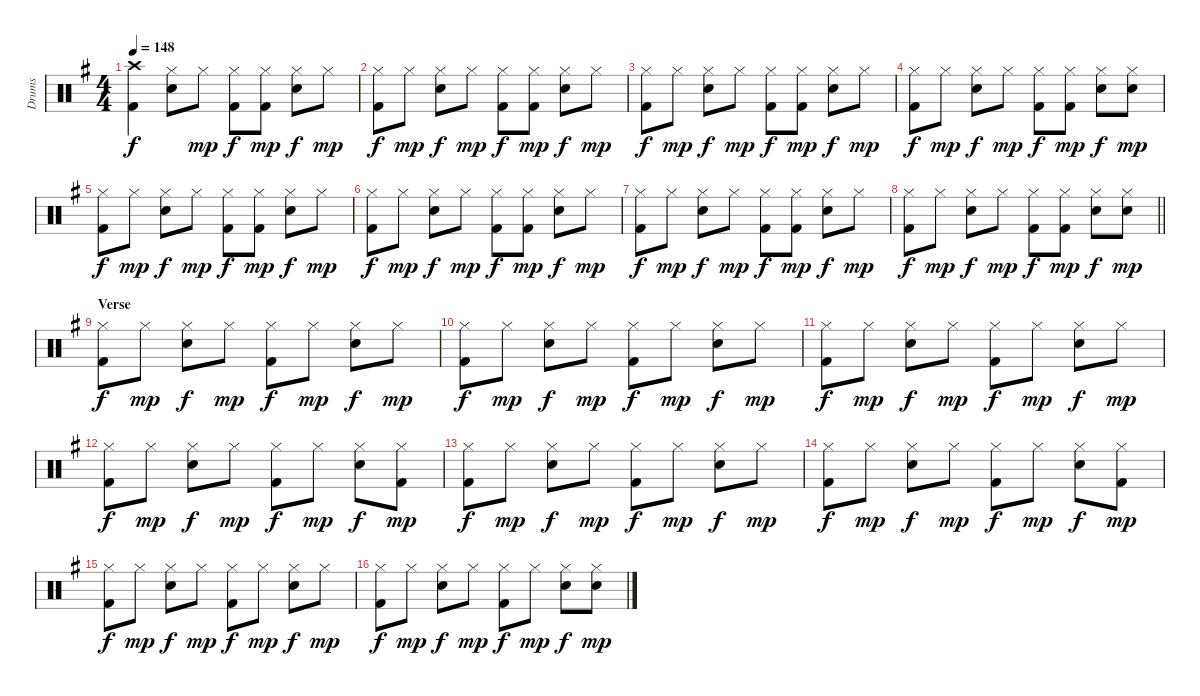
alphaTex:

\track ("Drums" "Drums") {instrument percussion}
\staff {score}
\articulation defaults
\ts (4 4)
\tempo 148
\clef neutral
\ks g
("Crash high (hit)" "Kick (hit) 2").4{dy f} ("Hi-Hat (closed)" "Electric Snare (hit)").8 "Hi-Hat (closed)".8{dy mp} ("Hi-Hat (closed)" "Kick (hit) 2").8{dy f} ("Hi-Hat (closed)" "Kick (hit) 2").8{dy mp} ("Hi-Hat (closed)" "Electric Snare (hit)").8{dy f} "Hi-Hat (closed)".8{dy mp} |
("Hi-Hat (closed)" "Kick (hit) 2").8{dy f} "Hi-Hat (closed)".8{dy mp} ("Hi-Hat (closed)" "Electric Snare (hit)").8{dy f} "Hi-Hat (closed)".8{dy mp} ("Hi-Hat (closed)" "Kick (hit) 2").8{dy f} ("Hi-Hat (closed)" "Kick (hit) 2").8{dy mp} ("Hi-Hat (closed)" "Electric Snare (hit)").8{dy f} "Hi-Hat (closed)".8{dy mp} |
("Hi-Hat (closed)" "Kick (hit) 2").8{dy f} "Hi-Hat (closed)".8{dy mp} ("Hi-Hat (closed)" "Electric Snare (hit)").8{dy f} "Hi-Hat (closed)".8{dy mp} ("Hi-Hat (closed)" "Kick (hit) 2").8{dy f} ("Hi-Hat (closed)" "Kick (hit) 2").8{dy mp} ("Hi-Hat (closed)" "Electric Snare (hit)").8{dy f} "Hi-Hat (closed)".8{dy mp} |
("Hi-Hat (closed)" "Kick (hit) 2").8{dy f} "Hi-Hat (closed)".8{dy mp} ("Hi-Hat (closed)" "Electric Snare (hit)").8{dy f} "Hi-Hat (closed)".8{dy mp} ("Hi-Hat (closed)" "Kick (hit) 2").8{dy f} ("Hi-Hat (closed)" "Kick (hit) 2").8{dy mp} ("Hi-Hat (closed)" "Electric Snare (hit)").8{dy f} ("Hi-Hat (closed)" "Electric Snare (hit)").8{dy mp} |
("Hi-Hat (closed)" "Kick (hit) 2").8{dy f} "Hi-Hat (closed)".8{dy mp} ("Hi-Hat (closed)" "Electric Snare (hit)").8{dy f} "Hi-Hat (closed)".8{dy mp} ("Hi-Hat (closed)" "Kick (hit) 2").8{dy f} ("Hi-Hat (closed)" "Kick (hit) 2").8{dy mp} ("Hi-Hat (closed)" "Electric Snare (hit)").8{dy f} "Hi-Hat (closed)".8{dy mp} |
("Hi-Hat (closed)" "Kick (hit) 2").8{dy f} "Hi-Hat (closed)".8{dy mp} ("Hi-Hat (closed)" "Electric Snare (hit)").8{dy f} "Hi-Hat (closed)".8{dy mp} ("Hi-Hat (closed)" "Kick (hit) 2").8{dy f} ("Hi-Hat (closed)" "Kick (hit) 2").8{dy mp} ("Hi-Hat (closed)" "Electric Snare (hit)").8{dy f} "Hi-Hat (closed)".8{dy mp} |
("Hi-Hat (closed)" "Kick (hit) 2").8{dy f} "Hi-Hat (closed)".8{dy mp} ("Hi-Hat (closed)" "Electric Snare (hit)").8{dy f} "Hi-Hat (closed)".8{dy mp} ("Hi-Hat (closed)" "Kick (hit) 2").8{dy f} ("Hi-Hat (closed)" "Kick (hit) 2").8{dy mp} ("Hi-Hat (closed)" "Electric Snare (hit)").8{dy f} "Hi-Hat (closed)".8{dy mp} |
\barLineRight lightlight
("Hi-Hat (closed)" "Kick (hit) 2").8{dy f} "Hi-Hat (closed)".8{dy mp} ("Hi-Hat (closed)" "Electric Snare (hit)").8{dy f} "Hi-Hat (closed)".8{dy mp} ("Hi-Hat (closed)" "Kick (hit) 2").8{dy f} ("Hi-Hat (closed)" "Kick (hit) 2").8{dy mp} ("Hi-Hat (closed)" "Electric Snare (hit)").8{dy f} ("Hi-Hat (closed)" "Electric Snare (hit)").8{dy mp} |
\section ("" "Verse")
("Hi-Hat (closed)" "Kick (hit) 2").8{dy f} "Hi-Hat (closed)".8{dy mp} ("Hi-Hat (closed)" "Electric Snare (hit)").8{dy f} "Hi-Hat (closed)".8{dy mp} ("Hi-Hat (closed)" "Kick (hit) 2").8{dy f} "Hi-Hat (closed)".8{dy mp} ("Hi-Hat (closed)" "Electric Snare (hit)").8{dy f} "Hi-Hat (closed)".8{dy mp} |
("Hi-Hat (closed)" "Kick (hit) 2").8{dy f} "Hi-Hat (closed)".8{dy mp} ("Hi-Hat (closed)" "Electric Snare (hit)").8{dy f} "Hi-Hat (closed)".8{dy mp} ("Hi-Hat (closed)" "Kick (hit) 2").8{dy f} "Hi-Hat (closed)".8{dy mp} ("Hi-Hat (closed)" "Electric Snare (hit)").8{dy f} "Hi-Hat (closed)".8{dy mp} |
("Hi-Hat (closed)" "Kick (hit) 2").8{dy f} "Hi-Hat (closed)".8{dy mp} ("Hi-Hat (closed)" "Electric Snare (hit)").8{dy f} "Hi-Hat (closed)".8{dy mp} ("Hi-Hat (closed)" "Kick (hit) 2").8{dy f} "Hi-Hat (closed)".8{dy mp} ("Hi-Hat (closed)" "Electric Snare (hit)").8{dy f} "Hi-Hat (closed)".8{dy mp} |
("Hi-Hat (closed)" "Kick (hit) 2").8{dy f} "Hi-Hat (closed)".8{dy mp} ("Hi-Hat (closed)" "Electric Snare (hit)").8{dy f} "Hi-Hat (closed)".8{dy mp} ("Hi-Hat (closed)" "Kick (hit) 2").8{dy f} "Hi-Hat (closed)".8{dy mp} ("Hi-Hat (closed)" "Electric Snare (hit)").8{dy f} ("Hi-Hat (closed)" "Kick (hit) 2").8{dy mp} |
("Hi-Hat (closed)" "Kick (hit) 2").8{dy f} "Hi-Hat (closed)".8{dy mp} ("Hi-Hat (closed)" "Electric Snare (hit)").8{dy f} "Hi-Hat (closed)".8{dy mp} ("Hi-Hat (closed)" "Kick (hit) 2").8{dy f} "Hi-Hat (closed)".8{dy mp} ("Hi-Hat (closed)" "Electric Snare (hit)").8{dy f} "Hi-Hat (closed)".8{dy mp} |
("Hi-Hat (closed)" "Kick (hit) 2").8{dy f} "Hi-Hat (closed)".8{dy mp} ("Hi-Hat (closed)" "Electric Snare (hit)").8{dy f} "Hi-Hat (closed)".8{dy mp} ("Hi-Hat (closed)" "Kick (hit) 2").8{dy f} "Hi-Hat (closed)".8{dy mp} ("Hi-Hat (closed)" "Electric Snare (hit)").8{dy f} ("Hi-Hat (closed)" "Kick (hit) 2").8{dy mp} |
("Hi-Hat (closed)" "Kick (hit) 2").8{dy f} "Hi-Hat (closed)".8{dy mp} ("Hi-Hat (closed)" "Electric Snare (hit)").8{dy f} "Hi-Hat (closed)".8{dy mp} ("Hi-Hat (closed)" "Kick (hit) 2").8{dy f} "Hi-Hat (closed)".8{dy mp} ("Hi-Hat (closed)" "Electric Snare (hit)").8{dy f} "Hi-Hat (closed)".8{dy mp} |
("Hi-Hat (closed)" "Kick (hit) 2").8{dy f} "Hi-Hat (closed)".8{dy mp} ("Hi-Hat (closed)" "Electric Snare (hit)").8{dy f} "Hi-Hat (closed)".8{dy mp} ("Hi-Hat (closed)" "Kick (hit) 2").8{dy f} "Hi-Hat (closed)".8{dy mp} ("Hi-Hat (closed)" "Electric Snare (hit)").8{dy f} ("Hi-Hat (closed)" "Electric Snare (hit)").8{dy mp}
